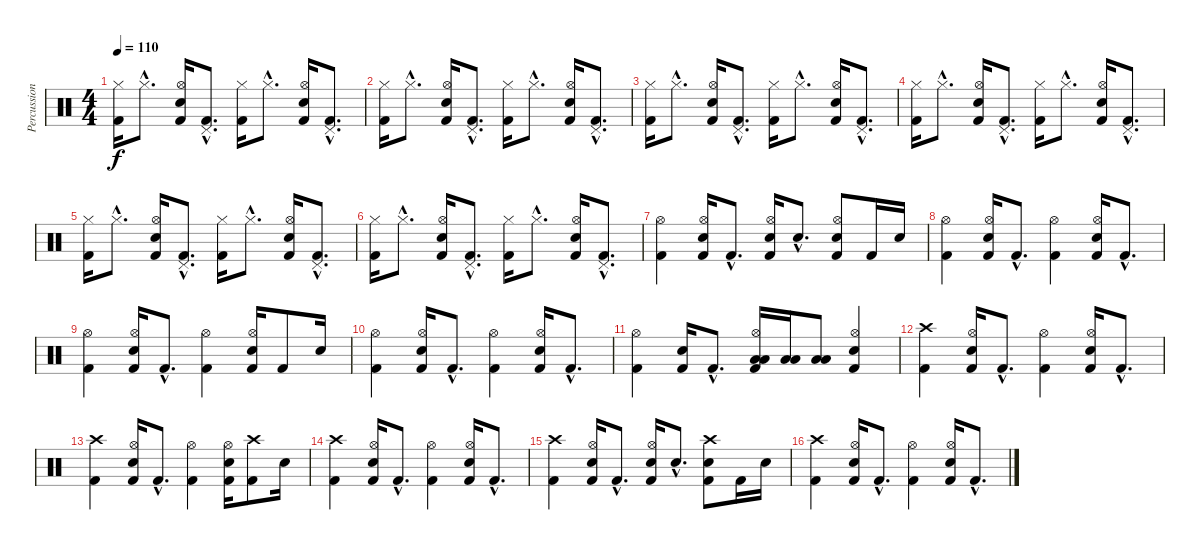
\track ("Percussions" "Percussion") {instrument percussion}
\staff {score}
\articulation defaults
\ts (4 4)
\tempo 110
\clef neutral
\ks c
("Hi-Hat (closed)" "Kick (hit) 2").16{dy f} "Hi-Hat (closed)"{hac}.8{d} ("Hi-Hat (open)" "Electric Snare (hit)" "Kick (hit) 2").16 ("Pedal Hi-Hat (hit)"{hac} "Kick (hit) 2"{hac}).8{d} ("Hi-Hat (closed)" "Kick (hit) 2").16 "Hi-Hat (closed)"{hac}.8{d} ("Hi-Hat (open)" "Electric Snare (hit)" "Kick (hit) 2").16 ("Pedal Hi-Hat (hit)"{hac} "Kick (hit) 2"{hac}).8{d} |
("Hi-Hat (closed)" "Kick (hit) 2").16 "Hi-Hat (closed)"{hac}.8{d} ("Hi-Hat (open)" "Electric Snare (hit)" "Kick (hit) 2").16 ("Pedal Hi-Hat (hit)"{hac} "Kick (hit) 2"{hac}).8{d} ("Hi-Hat (closed)" "Kick (hit) 2").16 "Hi-Hat (closed)"{hac}.8{d} ("Hi-Hat (open)" "Electric Snare (hit)" "Kick (hit) 2").16 ("Pedal Hi-Hat (hit)"{hac} "Kick (hit) 2"{hac}).8{d} |
("Hi-Hat (closed)" "Kick (hit) 2").16 "Hi-Hat (closed)"{hac}.8{d} ("Hi-Hat (open)" "Electric Snare (hit)" "Kick (hit) 2").16 ("Pedal Hi-Hat (hit)"{hac} "Kick (hit) 2"{hac}).8{d} ("Hi-Hat (closed)" "Kick (hit) 2").16 "Hi-Hat (closed)"{hac}.8{d} ("Hi-Hat (open)" "Electric Snare (hit)" "Kick (hit) 2").16 ("Pedal Hi-Hat (hit)"{hac} "Kick (hit) 2"{hac}).8{d} |
("Hi-Hat (closed)" "Kick (hit) 2").16 "Hi-Hat (closed)"{hac}.8{d} ("Hi-Hat (open)" "Electric Snare (hit)" "Kick (hit) 2").16 ("Pedal Hi-Hat (hit)"{hac} "Kick (hit) 2"{hac}).8{d} ("Hi-Hat (closed)" "Kick (hit) 2").16 "Hi-Hat (closed)"{hac}.8{d} ("Hi-Hat (open)" "Electric Snare (hit)" "Kick (hit) 2").16 ("Pedal Hi-Hat (hit)"{hac} "Kick (hit) 2"{hac}).8{d} |
("Hi-Hat (closed)" "Kick (hit) 2").16 "Hi-Hat (closed)"{hac}.8{d} ("Hi-Hat (open)" "Electric Snare (hit)" "Kick (hit) 2").16 ("Pedal Hi-Hat (hit)"{hac} "Kick (hit) 2"{hac}).8{d} ("Hi-Hat (closed)" "Kick (hit) 2").16 "Hi-Hat (closed)"{hac}.8{d} ("Hi-Hat (open)" "Electric Snare (hit)" "Kick (hit) 2").16 ("Pedal Hi-Hat (hit)"{hac} "Kick (hit) 2"{hac}).8{d} |
("Hi-Hat (closed)" "Kick (hit) 2").16 "Hi-Hat (closed)"{hac}.8{d} ("Hi-Hat (open)" "Electric Snare (hit)" "Kick (hit) 2").16 ("Pedal Hi-Hat (hit)"{hac} "Kick (hit) 2"{hac}).8{d} ("Hi-Hat (closed)" "Kick (hit) 2").16 "Hi-Hat (closed)"{hac}.8{d} ("Hi-Hat (open)" "Electric Snare (hit)" "Kick (hit) 2").16 ("Pedal Hi-Hat (hit)"{hac} "Kick (hit) 2"{hac}).8{d} |
("Hi-Hat (open)" "Kick (hit) 2").4 ("Hi-Hat (open)" "Electric Snare (hit)" "Kick (hit) 2").16 "Kick (hit) 2"{hac}.8{d} ("Hi-Hat (open)" "Electric Snare (hit)" "Kick (hit) 2").16 "Electric Snare (hit)"{hac}.8{d} ("Hi-Hat (open)" "Electric Snare (hit)" "Kick (hit) 2").8 "Kick (hit) 2".16 "Electric Snare (hit)".16 |
("Hi-Hat (open)" "Kick (hit) 2").4 ("Hi-Hat (open)" "Electric Snare (hit)" "Kick (hit) 2").16 "Kick (hit) 2"{hac}.8{d} ("Hi-Hat (open)" "Kick (hit) 2").4 ("Hi-Hat (open)" "Electric Snare (hit)" "Kick (hit) 2").16 "Kick (hit) 2"{hac}.8{d} |
("Hi-Hat (open)" "Kick (hit) 2").4 ("Hi-Hat (open)" "Electric Snare (hit)" "Kick (hit) 2").16 "Kick (hit) 2"{hac}.8{d} ("Hi-Hat (open)" "Kick (hit) 2").4 ("Hi-Hat (open)" "Electric Snare (hit)" "Kick (hit) 2").16 "Kick (hit) 2".8 "Electric Snare (hit)".16 |
("Hi-Hat (open)" "Kick (hit) 2").4 ("Hi-Hat (open)" "Electric Snare (hit)" "Kick (hit) 2").16 "Kick (hit) 2"{hac}.8{d} ("Hi-Hat (open)" "Kick (hit) 2").4 ("Hi-Hat (open)" "Electric Snare (hit)" "Kick (hit) 2").16 "Kick (hit) 2"{hac}.8{d} |
("Hi-Hat (open)" "Kick (hit) 2").4 ("Electric Snare (hit)" "Kick (hit) 2").16 "Kick (hit) 2"{hac}.8{d} ("Hi-Hat (open)" "Low Tom (hit)" "Low Tom (hit)" "Kick (hit) 2").16 ("Low Tom (hit)" "Low Tom (hit)").16 ("Low Tom (hit)" "Low Tom (hit)").8 ("Hi-Hat (open)" "Electric Snare (hit)" "Kick (hit) 2").4 |
("Crash high (hit)" "Kick (hit) 2").4 ("Hi-Hat (open)" "Electric Snare (hit)" "Kick (hit) 2").16 "Kick (hit) 2"{hac}.8{d} ("Hi-Hat (open)" "Kick (hit) 2").4 ("Hi-Hat (open)" "Electric Snare (hit)" "Kick (hit) 2").16 "Kick (hit) 2"{hac}.8{d} |
("Crash high (hit)" "Kick (hit) 2").4 ("Hi-Hat (open)" "Electric Snare (hit)" "Kick (hit) 2").16 "Kick (hit) 2"{hac}.8{d} ("Hi-Hat (open)" "Kick (hit) 2").4 ("Hi-Hat (open)" "Electric Snare (hit)" "Kick (hit) 2").16 ("Crash high (hit)" "Kick (hit) 2").8 "Electric Snare (hit)".16 |
("Crash high (hit)" "Kick (hit) 2").4 ("Hi-Hat (open)" "Electric Snare (hit)" "Kick (hit) 2").16 "Kick (hit) 2"{hac}.8{d} ("Hi-Hat (open)" "Kick (hit) 2").4 ("Hi-Hat (open)" "Electric Snare (hit)" "Kick (hit) 2").16 "Kick (hit) 2"{hac}.8{d} |
("Crash high (hit)" "Kick (hit) 2").4 ("Hi-Hat (open)" "Electric Snare (hit)" "Kick (hit) 2").16 "Kick (hit) 2"{hac}.8{d} ("Hi-Hat (open)" "Electric Snare (hit)" "Kick (hit) 2").16 "Electric Snare (hit)"{hac}.8{d} ("Crash high (hit)" "Electric Snare (hit)" "Kick (hit) 2").8 "Kick (hit) 2".16 "Electric Snare (hit)".16 |
("Crash high (hit)" "Kick (hit) 2").4 ("Hi-Hat (open)" "Electric Snare (hit)" "Kick (hit) 2").16 "Kick (hit) 2"{hac}.8{d} ("Hi-Hat (open)" "Kick (hit) 2").4 ("Hi-Hat (open)" "Electric Snare (hit)" "Kick (hit) 2").16 "Kick (hit) 2"{hac}.8{d}
